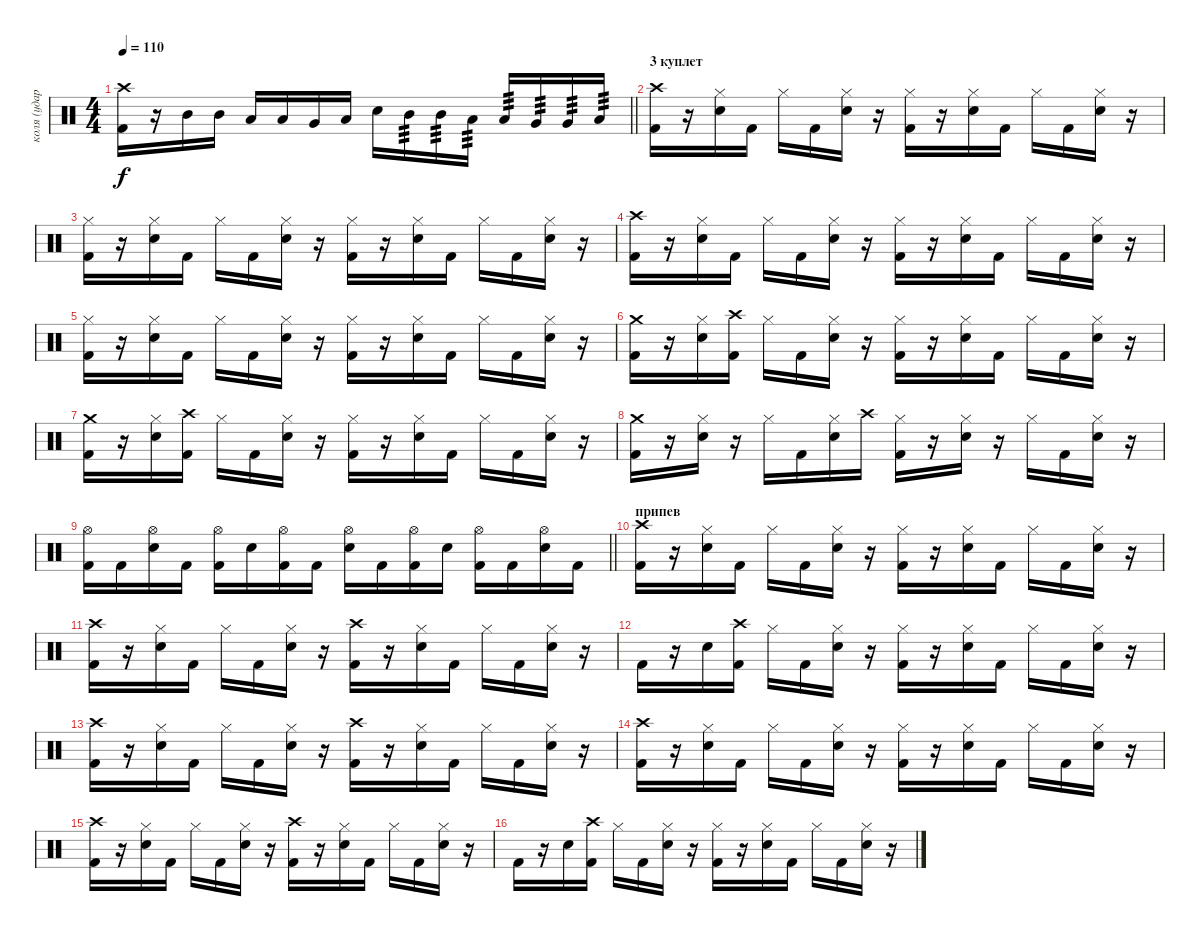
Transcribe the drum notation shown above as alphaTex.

\track ("коля (ударные)" "коля (удар") {instrument percussion}
\staff {score}
\articulation defaults
\ts (4 4)
\tempo 110
\clef neutral
\barLineRight lightlight
\ks c
("Kick (hit) 2" "Crash high (hit)").16{dy f} r.16 "Mid Tom (hit)".16 "Mid Tom (hit)".16 "Low Tom (hit)".16 "Low Tom (hit)".16 "Very Low Tom (hit)".16 "Low Floor Tom (hit)".16 "Snare (hit) 2".16 "Mid Tom (hit)".16{tp 3} "Mid Tom (hit)".16{tp 3} "Low Tom (hit)".16{tp 3} "Low Tom (hit)".16{tp 3} "Very Low Tom (hit)".16{tp 3} "Very Low Tom (hit)".16{tp 3} "Low Floor Tom (hit)".16{tp 3} |
\section ("" "3 куплет")
("Kick (hit) 2" "Crash high (hit)").16 r.16 ("Snare (hit) 2" "Hi-Hat (closed)").16 "Kick (hit) 2".16 "Hi-Hat (closed)".16 "Kick (hit) 2".16 ("Snare (hit) 2" "Hi-Hat (closed)").16 r.16 ("Kick (hit) 2" "Hi-Hat (closed)").16 r.16 ("Snare (hit) 2" "Hi-Hat (closed)").16 "Kick (hit) 2".16 "Hi-Hat (closed)".16 "Kick (hit) 2".16 ("Snare (hit) 2" "Hi-Hat (closed)").16 r.16 |
("Kick (hit) 2" "Hi-Hat (closed)").16 r.16 ("Snare (hit) 2" "Hi-Hat (closed)").16 "Kick (hit) 2".16 "Hi-Hat (closed)".16 "Kick (hit) 2".16 ("Snare (hit) 2" "Hi-Hat (closed)").16 r.16 ("Kick (hit) 2" "Hi-Hat (closed)").16 r.16 ("Snare (hit) 2" "Hi-Hat (closed)").16 "Kick (hit) 2".16 "Hi-Hat (closed)".16 "Kick (hit) 2".16 ("Snare (hit) 2" "Hi-Hat (closed)").16 r.16 |
("Kick (hit) 2" "Crash high (hit)").16 r.16 ("Snare (hit) 2" "Hi-Hat (closed)").16 "Kick (hit) 2".16 "Hi-Hat (closed)".16 "Kick (hit) 2".16 ("Snare (hit) 2" "Hi-Hat (closed)").16 r.16 ("Kick (hit) 2" "Hi-Hat (closed)").16 r.16 ("Snare (hit) 2" "Hi-Hat (closed)").16 "Kick (hit) 2".16 "Hi-Hat (closed)".16 "Kick (hit) 2".16 ("Snare (hit) 2" "Hi-Hat (closed)").16 r.16 |
("Kick (hit) 2" "Hi-Hat (closed)").16 r.16 ("Snare (hit) 2" "Hi-Hat (closed)").16 "Kick (hit) 2".16 "Hi-Hat (closed)".16 "Kick (hit) 2".16 ("Snare (hit) 2" "Hi-Hat (closed)").16 r.16 ("Kick (hit) 2" "Hi-Hat (closed)").16 r.16 ("Snare (hit) 2" "Hi-Hat (closed)").16 "Kick (hit) 2".16 "Hi-Hat (closed)".16 "Kick (hit) 2".16 ("Snare (hit) 2" "Hi-Hat (closed)").16 r.16 |
("Kick (hit) 2" "Crash medium (hit)").16 r.16 ("Snare (hit) 2" "Hi-Hat (closed)").16 ("Kick (hit) 2" "Crash high (hit)").16 "Hi-Hat (closed)".16 "Kick (hit) 2".16 ("Snare (hit) 2" "Hi-Hat (closed)").16 r.16 ("Kick (hit) 2" "Hi-Hat (closed)").16 r.16 ("Snare (hit) 2" "Hi-Hat (closed)").16 "Kick (hit) 2".16 "Hi-Hat (closed)".16 "Kick (hit) 2".16 ("Snare (hit) 2" "Hi-Hat (closed)").16 r.16 |
("Kick (hit) 2" "Crash medium (hit)").16 r.16 ("Snare (hit) 2" "Hi-Hat (closed)").16 ("Kick (hit) 2" "Crash high (hit)").16 "Hi-Hat (closed)".16 "Kick (hit) 2".16 ("Snare (hit) 2" "Hi-Hat (closed)").16 r.16 ("Kick (hit) 2" "Hi-Hat (closed)").16 r.16 ("Snare (hit) 2" "Hi-Hat (closed)").16 "Kick (hit) 2".16 "Hi-Hat (closed)".16 "Kick (hit) 2".16 ("Snare (hit) 2" "Hi-Hat (closed)").16 r.16 |
("Kick (hit) 2" "Crash medium (hit)").16 r.16 ("Snare (hit) 2" "Hi-Hat (closed)").16 r.16 "Hi-Hat (closed)".16 "Kick (hit) 2".16 ("Snare (hit) 2" "Hi-Hat (closed)").16 "Crash high (hit)".16 ("Kick (hit) 2" "Hi-Hat (closed)").16 r.16 ("Snare (hit) 2" "Hi-Hat (closed)").16 r.16 "Hi-Hat (closed)".16 "Kick (hit) 2".16 ("Snare (hit) 2" "Hi-Hat (closed)").16 r.16 |
\barLineRight lightlight
("Kick (hit) 2" "Hi-Hat (open)").16 "Kick (hit) 2".16 ("Snare (hit) 2" "Hi-Hat (open)").16 "Kick (hit) 2".16 ("Kick (hit) 2" "Hi-Hat (open)").16 "Snare (hit) 2".16 ("Kick (hit) 2" "Hi-Hat (open)").16 "Kick (hit) 2".16 ("Snare (hit) 2" "Hi-Hat (open)").16 "Kick (hit) 2".16 ("Kick (hit) 2" "Hi-Hat (open)").16 "Snare (hit) 2".16 ("Kick (hit) 2" "Hi-Hat (open)").16 "Kick (hit) 2".16 ("Snare (hit) 2" "Hi-Hat (open)").16 "Kick (hit) 2".16 |
\section ("" "припев")
("Kick (hit) 2" "Crash high (hit)").16 r.16 ("Snare (hit) 2" "Hi-Hat (closed)").16 "Kick (hit) 2".16 "Hi-Hat (closed)".16 "Kick (hit) 2".16 ("Snare (hit) 2" "Hi-Hat (closed)").16 r.16 ("Kick (hit) 2" "Hi-Hat (closed)").16 r.16 ("Snare (hit) 2" "Hi-Hat (closed)").16 "Kick (hit) 2".16 "Hi-Hat (closed)".16 "Kick (hit) 2".16 ("Snare (hit) 2" "Hi-Hat (closed)").16 r.16 |
("Kick (hit) 2" "Crash high (hit)").16 r.16 ("Snare (hit) 2" "Hi-Hat (closed)").16 "Kick (hit) 2".16 "Hi-Hat (closed)".16 "Kick (hit) 2".16 ("Snare (hit) 2" "Hi-Hat (closed)").16 r.16 ("Kick (hit) 2" "Crash high (hit)").16 r.16 ("Snare (hit) 2" "Hi-Hat (closed)").16 "Kick (hit) 2".16 "Hi-Hat (closed)".16 "Kick (hit) 2".16 ("Snare (hit) 2" "Hi-Hat (closed)").16 r.16 |
"Kick (hit) 2".16 r.16 "Snare (hit) 2".16 ("Kick (hit) 2" "Crash high (hit)").16 "Hi-Hat (closed)".16 "Kick (hit) 2".16 ("Snare (hit) 2" "Hi-Hat (closed)").16 r.16 ("Kick (hit) 2" "Hi-Hat (closed)").16 r.16 ("Snare (hit) 2" "Hi-Hat (closed)").16 "Kick (hit) 2".16 "Hi-Hat (closed)".16 "Kick (hit) 2".16 ("Snare (hit) 2" "Hi-Hat (closed)").16 r.16 |
("Kick (hit) 2" "Crash high (hit)").16 r.16 ("Snare (hit) 2" "Hi-Hat (closed)").16 "Kick (hit) 2".16 "Hi-Hat (closed)".16 "Kick (hit) 2".16 ("Snare (hit) 2" "Hi-Hat (closed)").16 r.16 ("Kick (hit) 2" "Crash high (hit)").16 r.16 ("Snare (hit) 2" "Hi-Hat (closed)").16 "Kick (hit) 2".16 "Hi-Hat (closed)".16 "Kick (hit) 2".16 ("Snare (hit) 2" "Hi-Hat (closed)").16 r.16 |
("Kick (hit) 2" "Crash high (hit)").16 r.16 ("Snare (hit) 2" "Hi-Hat (closed)").16 "Kick (hit) 2".16 "Hi-Hat (closed)".16 "Kick (hit) 2".16 ("Snare (hit) 2" "Hi-Hat (closed)").16 r.16 ("Kick (hit) 2" "Hi-Hat (closed)").16 r.16 ("Snare (hit) 2" "Hi-Hat (closed)").16 "Kick (hit) 2".16 "Hi-Hat (closed)".16 "Kick (hit) 2".16 ("Snare (hit) 2" "Hi-Hat (closed)").16 r.16 |
("Kick (hit) 2" "Crash high (hit)").16 r.16 ("Snare (hit) 2" "Hi-Hat (closed)").16 "Kick (hit) 2".16 "Hi-Hat (closed)".16 "Kick (hit) 2".16 ("Snare (hit) 2" "Hi-Hat (closed)").16 r.16 ("Kick (hit) 2" "Crash high (hit)").16 r.16 ("Snare (hit) 2" "Hi-Hat (closed)").16 "Kick (hit) 2".16 "Hi-Hat (closed)".16 "Kick (hit) 2".16 ("Snare (hit) 2" "Hi-Hat (closed)").16 r.16 |
"Kick (hit) 2".16 r.16 "Snare (hit) 2".16 ("Kick (hit) 2" "Crash high (hit)").16 "Hi-Hat (closed)".16 "Kick (hit) 2".16 ("Snare (hit) 2" "Hi-Hat (closed)").16 r.16 ("Kick (hit) 2" "Hi-Hat (closed)").16 r.16 ("Snare (hit) 2" "Hi-Hat (closed)").16 "Kick (hit) 2".16 "Hi-Hat (closed)".16 "Kick (hit) 2".16 ("Snare (hit) 2" "Hi-Hat (closed)").16 r.16
